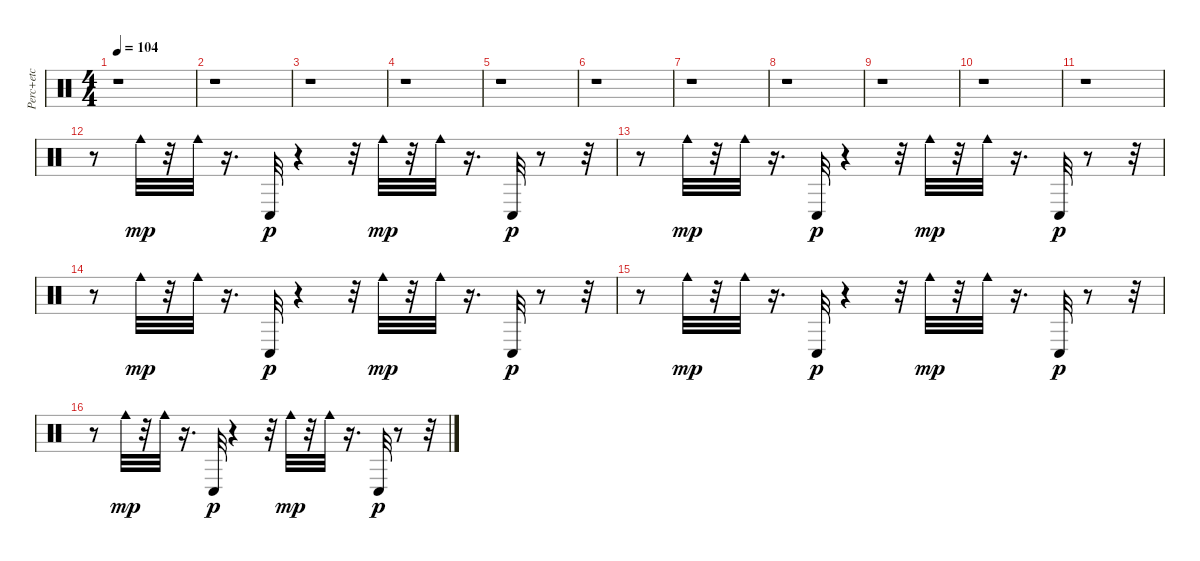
\track ("Perc+etc" "Perc+etc") {instrument percussion}
\staff {score}
\articulation defaults
\ts (4 4)
\tempo 104
\clef neutral
\ks c
r.1{dy mf} |
r.1 |
r.1 |
r.1 |
r.1 |
r.1 |
r.1 |
r.1 |
r.1 |
r.1 |
r.1 |
r.8 "Cowbell medium (hit)".32{dy mp} r.32 "Cowbell medium (hit)".32 r.16{d} "Conga low (hit)".32{dy p} r.4 r.32 "Cowbell medium (hit)".32{dy mp} r.32 "Cowbell medium (hit)".32 r.16{d} "Conga low (hit)".32{dy p} r.8 r.32 |
r.8 "Cowbell medium (hit)".32{dy mp} r.32 "Cowbell medium (hit)".32 r.16{d} "Conga low (hit)".32{dy p} r.4 r.32 "Cowbell medium (hit)".32{dy mp} r.32 "Cowbell medium (hit)".32 r.16{d} "Conga low (hit)".32{dy p} r.8 r.32 |
r.8 "Cowbell medium (hit)".32{dy mp} r.32 "Cowbell medium (hit)".32 r.16{d} "Conga low (hit)".32{dy p} r.4 r.32 "Cowbell medium (hit)".32{dy mp} r.32 "Cowbell medium (hit)".32 r.16{d} "Conga low (hit)".32{dy p} r.8 r.32 |
r.8 "Cowbell medium (hit)".32{dy mp} r.32 "Cowbell medium (hit)".32 r.16{d} "Conga low (hit)".32{dy p} r.4 r.32 "Cowbell medium (hit)".32{dy mp} r.32 "Cowbell medium (hit)".32 r.16{d} "Conga low (hit)".32{dy p} r.8 r.32 |
r.8 "Cowbell medium (hit)".32{dy mp} r.32 "Cowbell medium (hit)".32 r.16{d} "Conga low (hit)".32{dy p} r.4 r.32 "Cowbell medium (hit)".32{dy mp} r.32 "Cowbell medium (hit)".32 r.16{d} "Conga low (hit)".32{dy p} r.8 r.32
